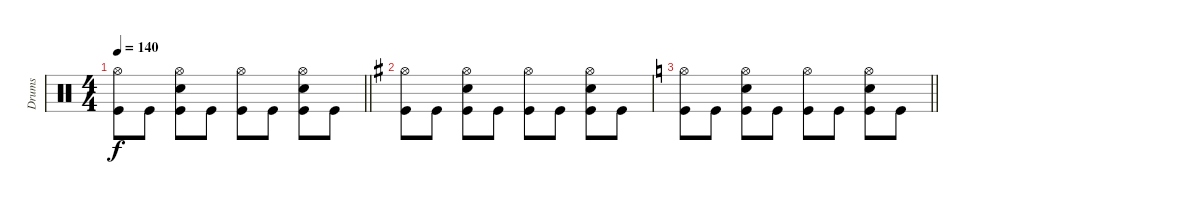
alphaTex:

\track ("Drums" "Drums") {instrument percussion}
\staff {score}
\articulation defaults
\ts (4 4)
\tempo 140
\clef neutral
\barLineRight lightlight
\ks c
("Hi-Hat (open)" "Kick (hit)").8{dy f} "Kick (hit)".8 ("Hi-Hat (open)" "Snare (hit) 2" "Kick (hit)").8 "Kick (hit)".8 ("Hi-Hat (open)" "Kick (hit)").8 "Kick (hit)".8 ("Hi-Hat (open)" "Snare (hit) 2" "Kick (hit)").8 "Kick (hit)".8 |
\ks g
("Hi-Hat (open)" "Kick (hit)").8 "Kick (hit)".8 ("Hi-Hat (open)" "Snare (hit) 2" "Kick (hit)").8 "Kick (hit)".8 ("Hi-Hat (open)" "Kick (hit)").8 "Kick (hit)".8 ("Hi-Hat (open)" "Snare (hit) 2" "Kick (hit)").8 "Kick (hit)".8 |
\barLineRight lightlight
\ks c
("Hi-Hat (open)" "Kick (hit)").8 "Kick (hit)".8 ("Hi-Hat (open)" "Snare (hit) 2" "Kick (hit)").8 "Kick (hit)".8 ("Hi-Hat (open)" "Kick (hit)").8 "Kick (hit)".8 ("Hi-Hat (open)" "Snare (hit) 2" "Kick (hit)").8 "Kick (hit)".8
